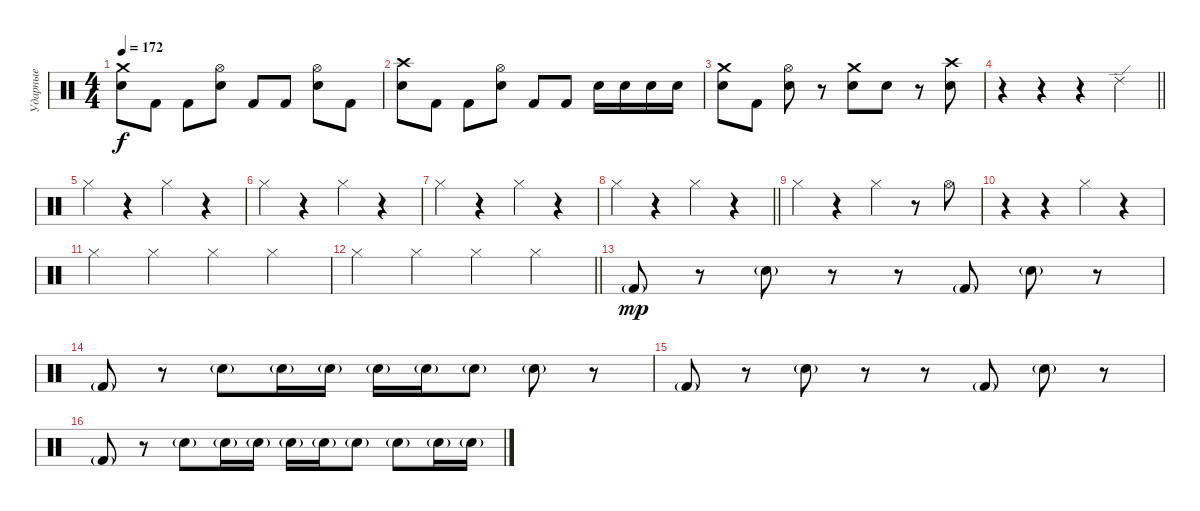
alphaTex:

\track ("Ударные" "Ударные") {instrument percussion}
\staff {score}
\articulation defaults
\ts (4 4)
\tempo 172
\clef neutral
\ks c
("Crash medium (hit)" "Electric Snare (hit)").8{dy f} "Kick (hit) 2".8 "Kick (hit) 2".8 ("Hi-Hat (open)" "Electric Snare (hit)").8 "Kick (hit) 2".8 "Kick (hit) 2".8 ("Hi-Hat (open)" "Electric Snare (hit)").8 "Kick (hit) 2".8 |
("Crash high (hit)" "Electric Snare (hit)").8 "Kick (hit) 2".8 "Kick (hit) 2".8 ("Hi-Hat (open)" "Electric Snare (hit)").8 "Kick (hit) 2".8 "Kick (hit) 2".8 "Electric Snare (hit)".16 "Electric Snare (hit)".16 "Electric Snare (hit)".16 "Electric Snare (hit)".16 |
("Crash medium (hit)" "Electric Snare (hit)").8 "Kick (hit) 2".8 ("Hi-Hat (open)" "Electric Snare (hit)").8 r.8 ("Crash medium (hit)" "Electric Snare (hit)").8 "Electric Snare (hit)".8 r.8 ("Crash high (hit)" "Electric Snare (hit)").8 |
\barLineRight lightlight
r.4 r.4 r.4 "Ride (edge) 2".4 |
"Hi-Hat (closed)".4 r.4 "Hi-Hat (closed)".4 r.4 |
"Hi-Hat (closed)".4 r.4 "Hi-Hat (closed)".4 r.4 |
"Hi-Hat (closed)".4 r.4 "Hi-Hat (closed)".4 r.4 |
\barLineRight lightlight "Hi-Hat (closed)".4
r.4 "Hi-Hat (closed)".4 r.4 |
"Hi-Hat (closed)".4 r.4 "Hi-Hat (closed)".4 r.8 "Hi-Hat (open)".8 |
r.4 r.4 "Hi-Hat (closed)".4 r.4 |
"Hi-Hat (closed)".4 "Hi-Hat (closed)".4 "Hi-Hat (closed)".4 "Hi-Hat (closed)".4 |
\barLineRight lightlight "Hi-Hat (closed)".4 "Hi-Hat (closed)".4 "Hi-Hat (closed)".4 "Hi-Hat (closed)".4
|
"Kick (hit) 2"{g}.8{dy mp} r.8 "Electric Snare (hit)"{g}.8 r.8 r.8 "Kick (hit) 2"{g}.8 "Electric Snare (hit)"{g}.8 r.8 |
"Kick (hit) 2"{g}.8 r.8 "Electric Snare (hit)"{g}.8 "Electric Snare (hit)"{g}.16 "Electric Snare (hit)"{g}.16 "Electric Snare (hit)"{g}.16 "Electric Snare (hit)"{g}.16 "Electric Snare (hit)"{g}.8 "Electric Snare (hit)"{g}.8 r.8 |
"Kick (hit) 2"{g}.8 r.8 "Electric Snare (hit)"{g}.8 r.8 r.8 "Kick (hit) 2"{g}.8 "Electric Snare (hit)"{g}.8 r.8 |
"Kick (hit) 2"{g}.8 r.8 "Electric Snare (hit)"{g}.8 "Electric Snare (hit)"{g}.16 "Electric Snare (hit)"{g}.16 "Electric Snare (hit)"{g}.16 "Electric Snare (hit)"{g}.16 "Electric Snare (hit)"{g}.8 "Electric Snare (hit)"{g}.8 "Electric Snare (hit)"{g}.16 "Electric Snare (hit)"{g}.16
